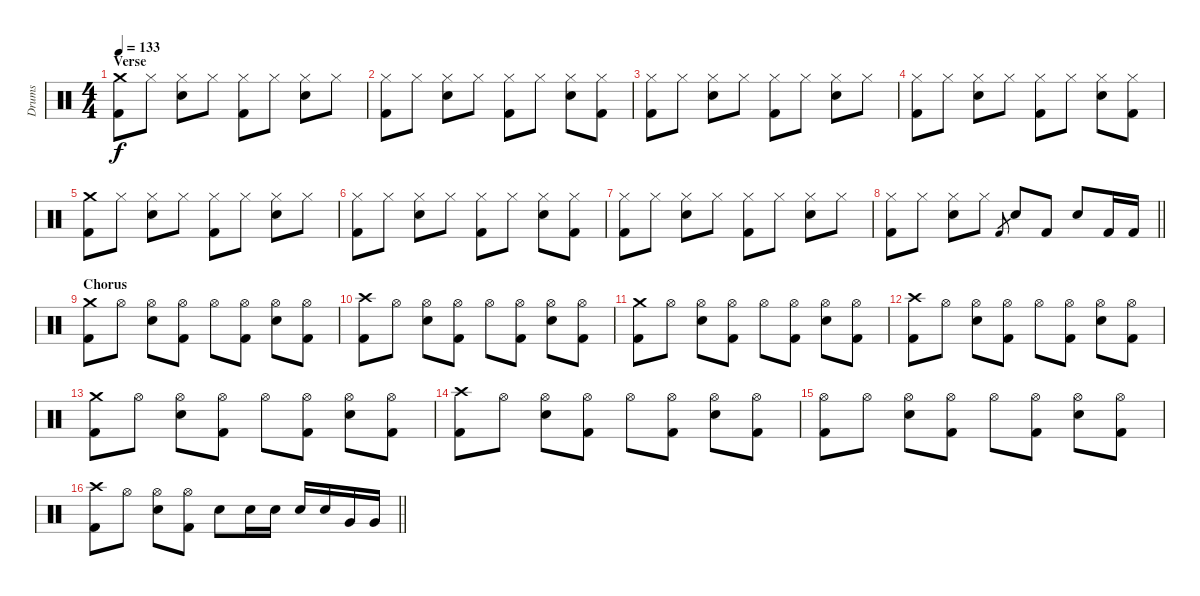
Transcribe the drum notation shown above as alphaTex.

\track ("Drums" "Drums") {instrument percussion}
\staff {score}
\articulation defaults
\ts (4 4)
\section ("" "Verse")
\tempo 133
\clef neutral
\ks c
("Crash medium (hit)" "Kick (hit) 2").8{dy f} "Hi-Hat (closed)".8 ("Hi-Hat (closed)" "Snare (hit) 2").8 "Hi-Hat (closed)".8 ("Hi-Hat (closed)" "Kick (hit) 2").8 "Hi-Hat (closed)".8 ("Hi-Hat (closed)" "Snare (hit) 2").8 "Hi-Hat (closed)".8 |
("Hi-Hat (closed)" "Kick (hit) 2").8 "Hi-Hat (closed)".8 ("Hi-Hat (closed)" "Snare (hit) 2").8 "Hi-Hat (closed)".8 ("Hi-Hat (closed)" "Kick (hit) 2").8 "Hi-Hat (closed)".8 ("Hi-Hat (closed)" "Snare (hit) 2").8 ("Hi-Hat (closed)" "Kick (hit) 2").8 |
("Hi-Hat (closed)" "Kick (hit) 2").8 "Hi-Hat (closed)".8 ("Hi-Hat (closed)" "Snare (hit) 2").8 "Hi-Hat (closed)".8 ("Hi-Hat (closed)" "Kick (hit) 2").8 "Hi-Hat (closed)".8 ("Hi-Hat (closed)" "Snare (hit) 2").8 "Hi-Hat (closed)".8 |
("Hi-Hat (closed)" "Kick (hit) 2").8 "Hi-Hat (closed)".8 ("Hi-Hat (closed)" "Snare (hit) 2").8 "Hi-Hat (closed)".8 ("Hi-Hat (closed)" "Kick (hit) 2").8 "Hi-Hat (closed)".8 ("Hi-Hat (closed)" "Snare (hit) 2").8 ("Hi-Hat (closed)" "Kick (hit) 2").8 |
("Crash medium (hit)" "Kick (hit) 2").8 "Hi-Hat (closed)".8 ("Hi-Hat (closed)" "Snare (hit) 2").8 "Hi-Hat (closed)".8 ("Hi-Hat (closed)" "Kick (hit) 2").8 "Hi-Hat (closed)".8 ("Hi-Hat (closed)" "Snare (hit) 2").8 "Hi-Hat (closed)".8 |
("Hi-Hat (closed)" "Kick (hit) 2").8 "Hi-Hat (closed)".8 ("Hi-Hat (closed)" "Snare (hit) 2").8 "Hi-Hat (closed)".8 ("Hi-Hat (closed)" "Kick (hit) 2").8 "Hi-Hat (closed)".8 ("Hi-Hat (closed)" "Snare (hit) 2").8 ("Hi-Hat (closed)" "Kick (hit) 2").8 |
("Hi-Hat (closed)" "Kick (hit) 2").8 "Hi-Hat (closed)".8 ("Hi-Hat (closed)" "Snare (hit) 2").8 "Hi-Hat (closed)".8 ("Hi-Hat (closed)" "Kick (hit) 2").8 "Hi-Hat (closed)".8 ("Hi-Hat (closed)" "Snare (hit) 2").8 "Hi-Hat (closed)".8 |
\barLineRight lightlight
("Hi-Hat (closed)" "Kick (hit) 2").8 "Hi-Hat (closed)".8 ("Hi-Hat (closed)" "Snare (hit) 2").8 "Hi-Hat (closed)".8 "Kick (hit) 2".8{gr} "Snare (hit) 2".8 "Kick (hit) 2".8 "Snare (hit) 2".8 "Kick (hit) 2".16 "Kick (hit) 2".16 |
\section ("" "Chorus")
("Crash medium (hit)" "Kick (hit) 2").8 "Hi-Hat (open)".8 ("Hi-Hat (open)" "Snare (hit) 2").8 ("Hi-Hat (open)" "Kick (hit) 2").8 "Hi-Hat (open)".8 ("Hi-Hat (open)" "Kick (hit) 2").8 ("Hi-Hat (open)" "Snare (hit) 2").8 ("Hi-Hat (open)" "Kick (hit) 2").8 |
("Crash high (hit)" "Kick (hit) 2").8 "Hi-Hat (open)".8 ("Hi-Hat (open)" "Snare (hit) 2").8 ("Hi-Hat (open)" "Kick (hit) 2").8 "Hi-Hat (open)".8 ("Hi-Hat (open)" "Kick (hit) 2").8 ("Hi-Hat (open)" "Snare (hit) 2").8 ("Hi-Hat (open)" "Kick (hit) 2").8 |
("Crash medium (hit)" "Kick (hit) 2").8 "Hi-Hat (open)".8 ("Hi-Hat (open)" "Snare (hit) 2").8 ("Hi-Hat (open)" "Kick (hit) 2").8 "Hi-Hat (open)".8 ("Hi-Hat (open)" "Kick (hit) 2").8 ("Hi-Hat (open)" "Snare (hit) 2").8 ("Hi-Hat (open)" "Kick (hit) 2").8 |
("Crash high (hit)" "Kick (hit) 2").8 "Hi-Hat (open)".8 ("Hi-Hat (open)" "Snare (hit) 2").8 ("Hi-Hat (open)" "Kick (hit) 2").8 "Hi-Hat (open)".8 ("Hi-Hat (open)" "Kick (hit) 2").8 ("Hi-Hat (open)" "Snare (hit) 2").8 ("Hi-Hat (open)" "Kick (hit) 2").8 |
("Crash medium (hit)" "Kick (hit) 2").8 "Hi-Hat (open)".8 ("Hi-Hat (open)" "Snare (hit) 2").8 ("Hi-Hat (open)" "Kick (hit) 2").8 "Hi-Hat (open)".8 ("Hi-Hat (open)" "Kick (hit) 2").8 ("Hi-Hat (open)" "Snare (hit) 2").8 ("Hi-Hat (open)" "Kick (hit) 2").8 |
("Crash high (hit)" "Kick (hit) 2").8 "Hi-Hat (open)".8 ("Hi-Hat (open)" "Snare (hit) 2").8 ("Hi-Hat (open)" "Kick (hit) 2").8 "Hi-Hat (open)".8 ("Hi-Hat (open)" "Kick (hit) 2").8 ("Hi-Hat (open)" "Snare (hit) 2").8 ("Hi-Hat (open)" "Kick (hit) 2").8 |
("Hi-Hat (open)" "Kick (hit) 2").8 "Hi-Hat (open)".8 ("Hi-Hat (open)" "Snare (hit) 2").8 ("Hi-Hat (open)" "Kick (hit) 2").8 "Hi-Hat (open)".8 ("Hi-Hat (open)" "Kick (hit) 2").8 ("Hi-Hat (open)" "Snare (hit) 2").8 ("Hi-Hat (open)" "Kick (hit) 2").8 |
\barLineRight lightlight
("Crash high (hit)" "Kick (hit) 2").8 "Hi-Hat (open)".8 ("Hi-Hat (open)" "Snare (hit) 2").8 ("Hi-Hat (open)" "Kick (hit) 2").8 "Snare (hit) 2".8 "Snare (hit) 2".16 "Snare (hit) 2".16 "Snare (hit) 2".16 "Snare (hit) 2".16 "Very Low Tom (hit)".16 "Very Low Tom (hit)".16
